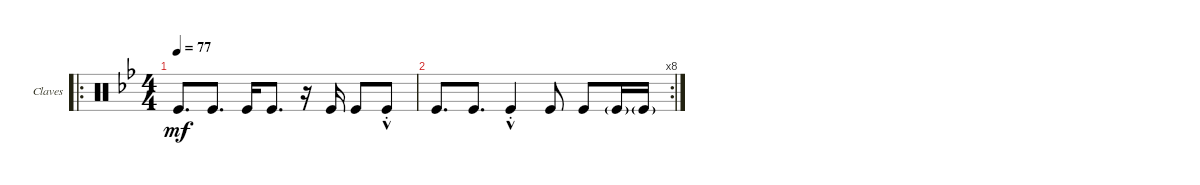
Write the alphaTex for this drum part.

\defaultSystemsLayout 4
\bracketExtendMode groupsimilarinstruments
\firstSystemTrackNameOrientation horizontal
\otherSystemsTrackNameOrientation horizontal
\track ("Claves" "Claves") {instrument percussion}
\staff {score}
\articulation defaults
\ro
\ts (4 4)
\tempo 77
\clef neutral
\ks bb "Kick (hit)".8{d dy mf} "Kick (hit)".8{d} "Kick (hit)".16 "Kick (hit)".8{d}
r.16 "Kick (hit)".16 "Kick (hit)".8 "Kick (hit)"{hac st}.8 |
\rc 8 "Kick (hit)".8{d} "Kick (hit)".8{d} "Kick (hit)"{hac st}.4 "Kick (hit)".8 "Kick (hit)".8 "Kick (hit)"{g}.16 "Kick (hit)"{g}.16
